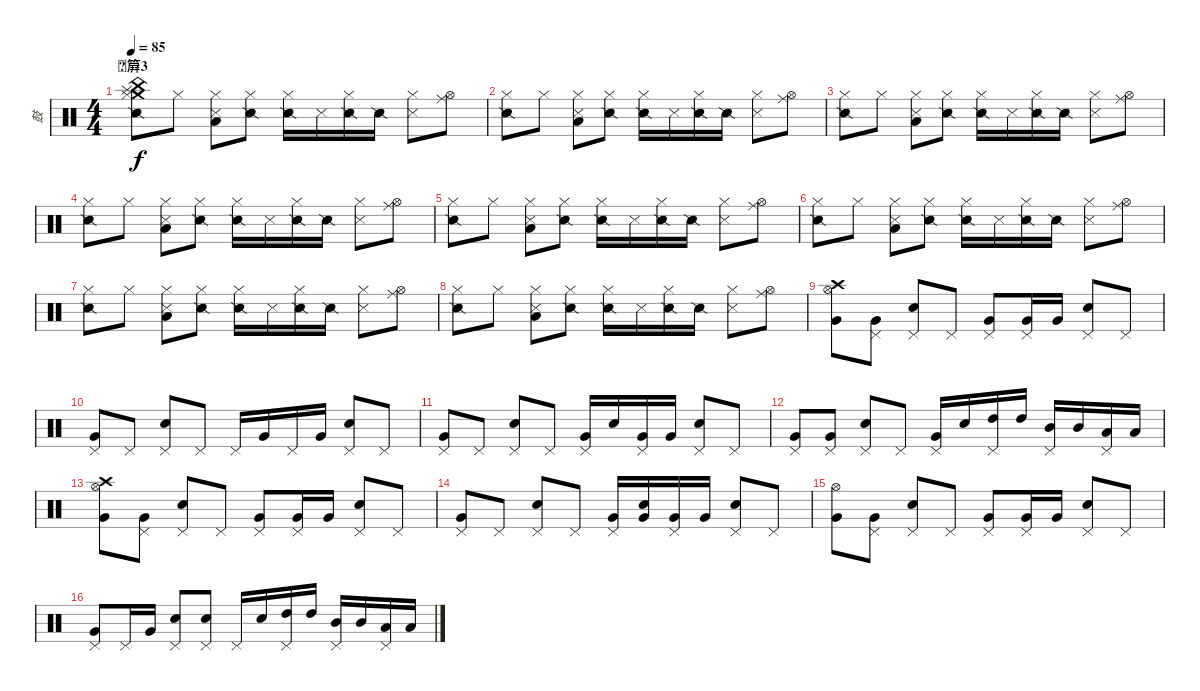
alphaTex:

\track ("鼓" "鼓") {instrument percussion}
\staff {score}
\articulation defaults
\ts (4 4)
\section ("" "簈3")
\tempo 85
\clef neutral
\ks c
("Crash medium (hit)" "Splash (hit)" "China (hit)" "Snare (side stick) 2" "Hi-Hat (closed)").8{dy f} "Hi-Hat (closed)".8 ("Metronome (hit)" "Low Floor Tom (hit)" "Hi-Hat (closed)").8 ("Snare (side stick) 2" "Hi-Hat (closed)").8 ("Snare (side stick) 2" "Hi-Hat (closed)").16 "Metronome (hit)".16 ("Snare (side stick) 2" "Hi-Hat (closed)").16 "Snare (side stick) 2".16 ("Metronome (hit)" "Hi-Hat (closed)").8 ("Ride (middle)" "Hi-Hat (open)").8 |
("Snare (side stick) 2" "Hi-Hat (closed)").8 "Hi-Hat (closed)".8 ("Metronome (hit)" "Low Floor Tom (hit)" "Hi-Hat (closed)").8 ("Snare (side stick) 2" "Hi-Hat (closed)").8 ("Snare (side stick) 2" "Hi-Hat (closed)").16 "Metronome (hit)".16 ("Snare (side stick) 2" "Hi-Hat (closed)").16 "Snare (side stick) 2".16 ("Metronome (hit)" "Hi-Hat (closed)").8 ("Ride (middle)" "Hi-Hat (open)").8 |
("Snare (side stick) 2" "Hi-Hat (closed)").8 "Hi-Hat (closed)".8 ("Metronome (hit)" "Low Floor Tom (hit)" "Hi-Hat (closed)").8 ("Snare (side stick) 2" "Hi-Hat (closed)").8 ("Snare (side stick) 2" "Hi-Hat (closed)").16 "Metronome (hit)".16 ("Snare (side stick) 2" "Hi-Hat (closed)").16 "Snare (side stick) 2".16 ("Metronome (hit)" "Hi-Hat (closed)").8 ("Ride (middle)" "Hi-Hat (open)").8 |
("Snare (side stick) 2" "Hi-Hat (closed)").8 "Hi-Hat (closed)".8 ("Metronome (hit)" "Low Floor Tom (hit)" "Hi-Hat (closed)").8 ("Snare (side stick) 2" "Hi-Hat (closed)").8 ("Snare (side stick) 2" "Hi-Hat (closed)").16 "Metronome (hit)".16 ("Snare (side stick) 2" "Hi-Hat (closed)").16 "Snare (side stick) 2".16 ("Metronome (hit)" "Hi-Hat (closed)").8 ("Ride (middle)" "Hi-Hat (open)").8 |
("Snare (side stick) 2" "Hi-Hat (closed)").8 "Hi-Hat (closed)".8 ("Metronome (hit)" "Low Floor Tom (hit)" "Hi-Hat (closed)").8 ("Snare (side stick) 2" "Hi-Hat (closed)").8 ("Snare (side stick) 2" "Hi-Hat (closed)").16 "Metronome (hit)".16 ("Snare (side stick) 2" "Hi-Hat (closed)").16 "Snare (side stick) 2".16 ("Metronome (hit)" "Hi-Hat (closed)").8 ("Ride (middle)" "Hi-Hat (open)").8 |
("Snare (side stick) 2" "Hi-Hat (closed)").8 "Hi-Hat (closed)".8 ("Metronome (hit)" "Low Floor Tom (hit)" "Hi-Hat (closed)").8 ("Snare (side stick) 2" "Hi-Hat (closed)").8 ("Snare (side stick) 2" "Hi-Hat (closed)").16 "Metronome (hit)".16 ("Snare (side stick) 2" "Hi-Hat (closed)").16 "Snare (side stick) 2".16 ("Metronome (hit)" "Hi-Hat (closed)").8 ("Ride (middle)" "Hi-Hat (open)").8 |
("Snare (side stick) 2" "Hi-Hat (closed)").8 "Hi-Hat (closed)".8 ("Metronome (hit)" "Low Floor Tom (hit)" "Hi-Hat (closed)").8 ("Snare (side stick) 2" "Hi-Hat (closed)").8 ("Snare (side stick) 2" "Hi-Hat (closed)").16 "Metronome (hit)".16 ("Snare (side stick) 2" "Hi-Hat (closed)").16 "Snare (side stick) 2".16 ("Metronome (hit)" "Hi-Hat (closed)").8 ("Ride (middle)" "Hi-Hat (open)").8 |
("Snare (side stick) 2" "Hi-Hat (closed)").8 "Hi-Hat (closed)".8 ("Metronome (hit)" "Low Floor Tom (hit)" "Hi-Hat (closed)").8 ("Snare (side stick) 2" "Hi-Hat (closed)").8 ("Snare (side stick) 2" "Hi-Hat (closed)").16 "Metronome (hit)".16 ("Snare (side stick) 2" "Hi-Hat (closed)").16 "Snare (side stick) 2".16 ("Metronome (hit)" "Hi-Hat (closed)").8 ("Ride (middle)" "Hi-Hat (open)").8 |
\section ("" "")
("Crash high (hit)" "Very Low Tom (hit)" "Hi-Hat (open)").8 ("Very Low Tom (hit)" "Pedal Hi-Hat (hit)").8 ("Snare (hit) 2" "Pedal Hi-Hat (hit)").8 "Pedal Hi-Hat (hit)".8 ("Very Low Tom (hit)" "Pedal Hi-Hat (hit)").8 ("Very Low Tom (hit)" "Pedal Hi-Hat (hit)").16 "Very Low Tom (hit)".16 ("Snare (hit) 2" "Pedal Hi-Hat (hit)").8 "Pedal Hi-Hat (hit)".8 |
\section ("" "")
("Very Low Tom (hit)" "Pedal Hi-Hat (hit)").8 "Pedal Hi-Hat (hit)".8 ("Snare (hit) 2" "Pedal Hi-Hat (hit)").8 "Pedal Hi-Hat (hit)".8 "Pedal Hi-Hat (hit)".16 "Very Low Tom (hit)".16 "Pedal Hi-Hat (hit)".16 "Very Low Tom (hit)".16 ("Snare (hit) 2" "Pedal Hi-Hat (hit)").8 "Pedal Hi-Hat (hit)".8 |
("Very Low Tom (hit)" "Pedal Hi-Hat (hit)").8 "Pedal Hi-Hat (hit)".8 ("Snare (hit) 2" "Pedal Hi-Hat (hit)").8 "Pedal Hi-Hat (hit)".8 ("Very Low Tom (hit)" "Pedal Hi-Hat (hit)").16 "Snare (hit) 2".16 ("Very Low Tom (hit)" "Pedal Hi-Hat (hit)").16 "Very Low Tom (hit)".16 ("Snare (hit) 2" "Pedal Hi-Hat (hit)").8 "Pedal Hi-Hat (hit)".8 |
("Very Low Tom (hit)" "Pedal Hi-Hat (hit)").8 ("Very Low Tom (hit)" "Pedal Hi-Hat (hit)").8 ("Snare (hit) 2" "Pedal Hi-Hat (hit)").8 "Pedal Hi-Hat (hit)".8 ("Very Low Tom (hit)" "Pedal Hi-Hat (hit)").16 "Snare (hit) 2".16 ("High Tom (hit)" "Pedal Hi-Hat (hit)").16 "High Tom (hit)".16 ("Mid Tom (hit)" "Pedal Hi-Hat (hit)").16 "Mid Tom (hit)".16 ("Low Tom (hit)" "Pedal Hi-Hat (hit)").16 "Low Tom (hit)".16 |
("Crash high (hit)" "Very Low Tom (hit)" "Hi-Hat (open)").8 ("Very Low Tom (hit)" "Pedal Hi-Hat (hit)").8 ("Snare (hit) 2" "Pedal Hi-Hat (hit)").8 "Pedal Hi-Hat (hit)".8 ("Very Low Tom (hit)" "Pedal Hi-Hat (hit)").8 ("Very Low Tom (hit)" "Pedal Hi-Hat (hit)").16 "Very Low Tom (hit)".16 ("Snare (hit) 2" "Pedal Hi-Hat (hit)").8 "Pedal Hi-Hat (hit)".8 |
("Very Low Tom (hit)" "Pedal Hi-Hat (hit)").8 "Pedal Hi-Hat (hit)".8 ("Snare (hit) 2" "Pedal Hi-Hat (hit)").8 "Pedal Hi-Hat (hit)".8 ("Very Low Tom (hit)" "Pedal Hi-Hat (hit)").16 ("Snare (hit) 2" "Very Low Tom (hit)").16 ("Very Low Tom (hit)" "Pedal Hi-Hat (hit)").16 "Very Low Tom (hit)".16 ("Snare (hit) 2" "Pedal Hi-Hat (hit)").8 "Pedal Hi-Hat (hit)".8 |
("Very Low Tom (hit)" "Hi-Hat (open)").8 ("Very Low Tom (hit)" "Pedal Hi-Hat (hit)").8 ("Snare (hit) 2" "Pedal Hi-Hat (hit)").8 "Pedal Hi-Hat (hit)".8 ("Very Low Tom (hit)" "Pedal Hi-Hat (hit)").8 ("Very Low Tom (hit)" "Pedal Hi-Hat (hit)").16 "Very Low Tom (hit)".16 ("Snare (hit) 2" "Pedal Hi-Hat (hit)").8 "Pedal Hi-Hat (hit)".8 |
("Very Low Tom (hit)" "Pedal Hi-Hat (hit)").8 "Pedal Hi-Hat (hit)".16 "Very Low Tom (hit)".16 ("Snare (hit) 2" "Pedal Hi-Hat (hit)").8 ("Snare (hit) 2" "Pedal Hi-Hat (hit)").8 "Pedal Hi-Hat (hit)".16 "Snare (hit) 2".16 ("High Tom (hit)" "Pedal Hi-Hat (hit)").16 "High Tom (hit)".16 ("Mid Tom (hit)" "Pedal Hi-Hat (hit)").16 "Mid Tom (hit)".16 ("Low Tom (hit)" "Pedal Hi-Hat (hit)").16 "Low Tom (hit)".16
